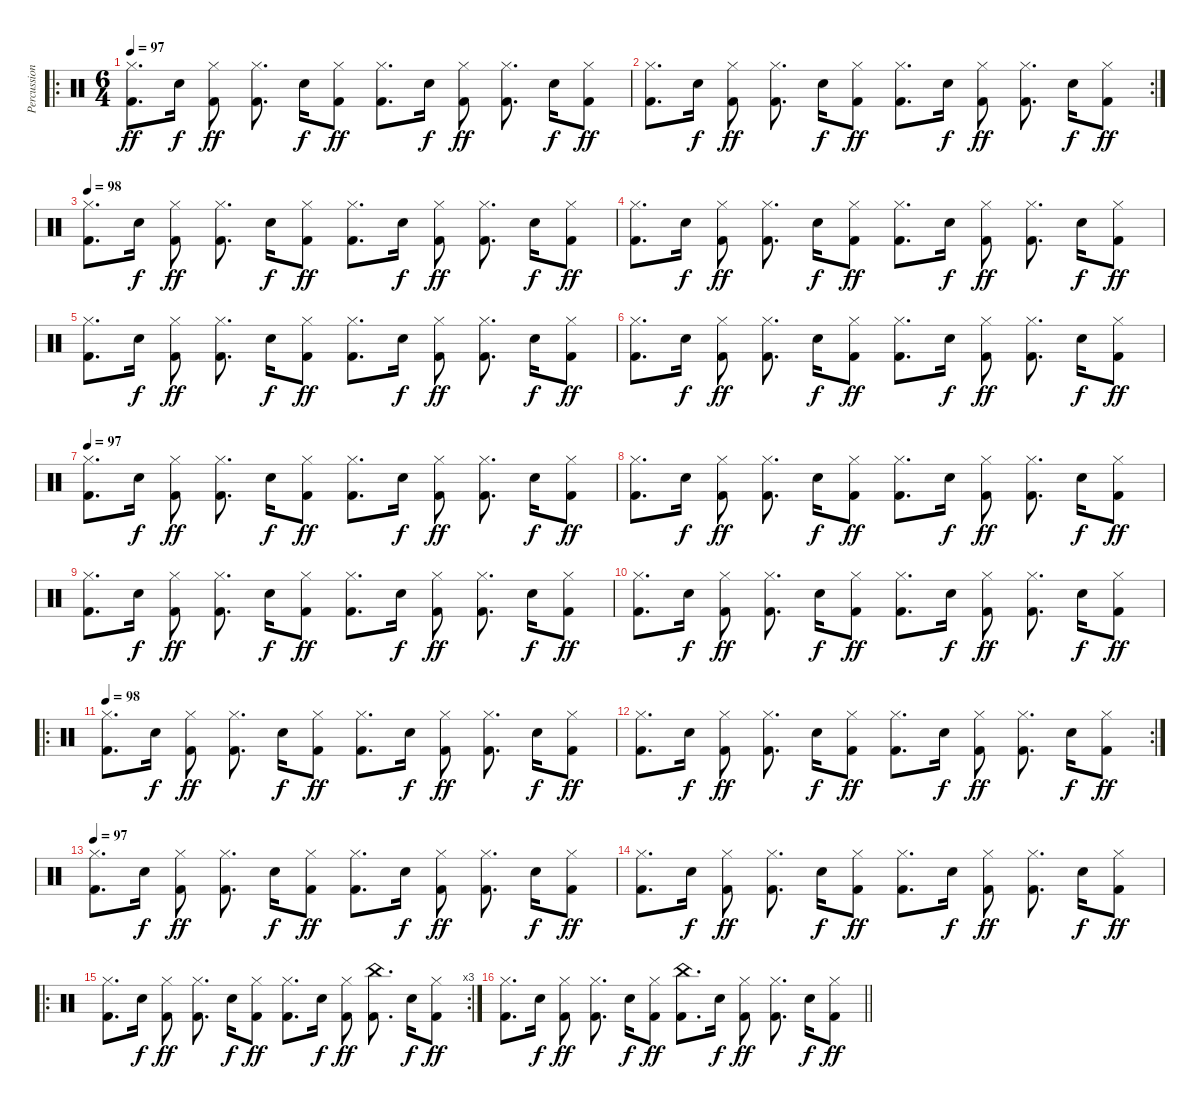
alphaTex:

\track ("Percussion" "Percussion") {instrument percussion}
\staff {score}
\articulation defaults
\ro
\ts (6 4)
\tempo 97
\clef neutral
\ks c
("Hi-Hat (closed)" "Kick (hit) 2").8{d dy ff} "Electric Snare (hit)".16{dy f} ("Hi-Hat (closed)" "Kick (hit) 2").8{dy ff beam split} ("Hi-Hat (closed)" "Kick (hit) 2").8{d} "Electric Snare (hit)".16{dy f} ("Hi-Hat (closed)" "Kick (hit) 2").8{dy ff} ("Hi-Hat (closed)" "Kick (hit) 2").8{d} "Electric Snare (hit)".16{dy f} ("Hi-Hat (closed)" "Kick (hit) 2").8{dy ff beam split} ("Hi-Hat (closed)" "Kick (hit) 2").8{d} "Electric Snare (hit)".16{dy f} ("Hi-Hat (closed)" "Kick (hit) 2").8{dy ff} |
\rc 2
("Hi-Hat (closed)" "Kick (hit) 2").8{d} "Electric Snare (hit)".16{dy f} ("Hi-Hat (closed)" "Kick (hit) 2").8{dy ff beam split} ("Hi-Hat (closed)" "Kick (hit) 2").8{d} "Electric Snare (hit)".16{dy f} ("Hi-Hat (closed)" "Kick (hit) 2").8{dy ff} ("Hi-Hat (closed)" "Kick (hit) 2").8{d} "Electric Snare (hit)".16{dy f} ("Hi-Hat (closed)" "Kick (hit) 2").8{dy ff beam split} ("Hi-Hat (closed)" "Kick (hit) 2").8{d} "Electric Snare (hit)".16{dy f} ("Hi-Hat (closed)" "Kick (hit) 2").8{dy ff} |
\tempo 98
("Hi-Hat (closed)" "Kick (hit) 2").8{d} "Electric Snare (hit)".16{dy f} ("Hi-Hat (closed)" "Kick (hit) 2").8{dy ff beam split} ("Hi-Hat (closed)" "Kick (hit) 2").8{d} "Electric Snare (hit)".16{dy f} ("Hi-Hat (closed)" "Kick (hit) 2").8{dy ff} ("Hi-Hat (closed)" "Kick (hit) 2").8{d} "Electric Snare (hit)".16{dy f} ("Hi-Hat (closed)" "Kick (hit) 2").8{dy ff beam split} ("Hi-Hat (closed)" "Kick (hit) 2").8{d} "Electric Snare (hit)".16{dy f} ("Hi-Hat (closed)" "Kick (hit) 2").8{dy ff} |
("Hi-Hat (closed)" "Kick (hit) 2").8{d} "Electric Snare (hit)".16{dy f} ("Hi-Hat (closed)" "Kick (hit) 2").8{dy ff beam split} ("Hi-Hat (closed)" "Kick (hit) 2").8{d} "Electric Snare (hit)".16{dy f} ("Hi-Hat (closed)" "Kick (hit) 2").8{dy ff} ("Hi-Hat (closed)" "Kick (hit) 2").8{d} "Electric Snare (hit)".16{dy f} ("Hi-Hat (closed)" "Kick (hit) 2").8{dy ff beam split} ("Hi-Hat (closed)" "Kick (hit) 2").8{d} "Electric Snare (hit)".16{dy f} ("Hi-Hat (closed)" "Kick (hit) 2").8{dy ff} |
("Hi-Hat (closed)" "Kick (hit) 2").8{d} "Electric Snare (hit)".16{dy f} ("Hi-Hat (closed)" "Kick (hit) 2").8{dy ff beam split} ("Hi-Hat (closed)" "Kick (hit) 2").8{d} "Electric Snare (hit)".16{dy f} ("Hi-Hat (closed)" "Kick (hit) 2").8{dy ff} ("Hi-Hat (closed)" "Kick (hit) 2").8{d} "Electric Snare (hit)".16{dy f} ("Hi-Hat (closed)" "Kick (hit) 2").8{dy ff beam split} ("Hi-Hat (closed)" "Kick (hit) 2").8{d} "Electric Snare (hit)".16{dy f} ("Hi-Hat (closed)" "Kick (hit) 2").8{dy ff} |
("Hi-Hat (closed)" "Kick (hit) 2").8{d} "Electric Snare (hit)".16{dy f} ("Hi-Hat (closed)" "Kick (hit) 2").8{dy ff beam split} ("Hi-Hat (closed)" "Kick (hit) 2").8{d} "Electric Snare (hit)".16{dy f} ("Hi-Hat (closed)" "Kick (hit) 2").8{dy ff} ("Hi-Hat (closed)" "Kick (hit) 2").8{d} "Electric Snare (hit)".16{dy f} ("Hi-Hat (closed)" "Kick (hit) 2").8{dy ff beam split} ("Hi-Hat (closed)" "Kick (hit) 2").8{d} "Electric Snare (hit)".16{dy f} ("Hi-Hat (closed)" "Kick (hit) 2").8{dy ff} |
\tempo 97
("Hi-Hat (closed)" "Kick (hit) 2").8{d} "Electric Snare (hit)".16{dy f} ("Hi-Hat (closed)" "Kick (hit) 2").8{dy ff beam split} ("Hi-Hat (closed)" "Kick (hit) 2").8{d} "Electric Snare (hit)".16{dy f} ("Hi-Hat (closed)" "Kick (hit) 2").8{dy ff} ("Hi-Hat (closed)" "Kick (hit) 2").8{d} "Electric Snare (hit)".16{dy f} ("Hi-Hat (closed)" "Kick (hit) 2").8{dy ff beam split} ("Hi-Hat (closed)" "Kick (hit) 2").8{d} "Electric Snare (hit)".16{dy f} ("Hi-Hat (closed)" "Kick (hit) 2").8{dy ff} |
("Hi-Hat (closed)" "Kick (hit) 2").8{d} "Electric Snare (hit)".16{dy f} ("Hi-Hat (closed)" "Kick (hit) 2").8{dy ff beam split} ("Hi-Hat (closed)" "Kick (hit) 2").8{d} "Electric Snare (hit)".16{dy f} ("Hi-Hat (closed)" "Kick (hit) 2").8{dy ff} ("Hi-Hat (closed)" "Kick (hit) 2").8{d} "Electric Snare (hit)".16{dy f} ("Hi-Hat (closed)" "Kick (hit) 2").8{dy ff beam split} ("Hi-Hat (closed)" "Kick (hit) 2").8{d} "Electric Snare (hit)".16{dy f} ("Hi-Hat (closed)" "Kick (hit) 2").8{dy ff} |
("Hi-Hat (closed)" "Kick (hit) 2").8{d} "Electric Snare (hit)".16{dy f} ("Hi-Hat (closed)" "Kick (hit) 2").8{dy ff beam split} ("Hi-Hat (closed)" "Kick (hit) 2").8{d} "Electric Snare (hit)".16{dy f} ("Hi-Hat (closed)" "Kick (hit) 2").8{dy ff} ("Hi-Hat (closed)" "Kick (hit) 2").8{d} "Electric Snare (hit)".16{dy f} ("Hi-Hat (closed)" "Kick (hit) 2").8{dy ff beam split} ("Hi-Hat (closed)" "Kick (hit) 2").8{d} "Electric Snare (hit)".16{dy f} ("Hi-Hat (closed)" "Kick (hit) 2").8{dy ff} |
("Hi-Hat (closed)" "Kick (hit) 2").8{d} "Electric Snare (hit)".16{dy f} ("Hi-Hat (closed)" "Kick (hit) 2").8{dy ff beam split} ("Hi-Hat (closed)" "Kick (hit) 2").8{d} "Electric Snare (hit)".16{dy f} ("Hi-Hat (closed)" "Kick (hit) 2").8{dy ff} ("Hi-Hat (closed)" "Kick (hit) 2").8{d} "Electric Snare (hit)".16{dy f} ("Hi-Hat (closed)" "Kick (hit) 2").8{dy ff beam split} ("Hi-Hat (closed)" "Kick (hit) 2").8{d} "Electric Snare (hit)".16{dy f} ("Hi-Hat (closed)" "Kick (hit) 2").8{dy ff} |
\ro
\tempo 98
("Hi-Hat (closed)" "Kick (hit) 2").8{d} "Electric Snare (hit)".16{dy f} ("Hi-Hat (closed)" "Kick (hit) 2").8{dy ff beam split} ("Hi-Hat (closed)" "Kick (hit) 2").8{d} "Electric Snare (hit)".16{dy f} ("Hi-Hat (closed)" "Kick (hit) 2").8{dy ff} ("Hi-Hat (closed)" "Kick (hit) 2").8{d} "Electric Snare (hit)".16{dy f} ("Hi-Hat (closed)" "Kick (hit) 2").8{dy ff beam split} ("Hi-Hat (closed)" "Kick (hit) 2").8{d} "Electric Snare (hit)".16{dy f} ("Hi-Hat (closed)" "Kick (hit) 2").8{dy ff} |
\rc 2
("Hi-Hat (closed)" "Kick (hit) 2").8{d} "Electric Snare (hit)".16{dy f} ("Hi-Hat (closed)" "Kick (hit) 2").8{dy ff beam split} ("Hi-Hat (closed)" "Kick (hit) 2").8{d} "Electric Snare (hit)".16{dy f} ("Hi-Hat (closed)" "Kick (hit) 2").8{dy ff} ("Hi-Hat (closed)" "Kick (hit) 2").8{d} "Electric Snare (hit)".16{dy f} ("Hi-Hat (closed)" "Kick (hit) 2").8{dy ff beam split} ("Hi-Hat (closed)" "Kick (hit) 2").8{d} "Electric Snare (hit)".16{dy f} ("Hi-Hat (closed)" "Kick (hit) 2").8{dy ff} |
\tempo 97
("Hi-Hat (closed)" "Kick (hit) 2").8{d} "Electric Snare (hit)".16{dy f} ("Hi-Hat (closed)" "Kick (hit) 2").8{dy ff beam split} ("Hi-Hat (closed)" "Kick (hit) 2").8{d} "Electric Snare (hit)".16{dy f} ("Hi-Hat (closed)" "Kick (hit) 2").8{dy ff} ("Hi-Hat (closed)" "Kick (hit) 2").8{d} "Electric Snare (hit)".16{dy f} ("Hi-Hat (closed)" "Kick (hit) 2").8{dy ff beam split} ("Hi-Hat (closed)" "Kick (hit) 2").8{d} "Electric Snare (hit)".16{dy f} ("Hi-Hat (closed)" "Kick (hit) 2").8{dy ff} |
("Hi-Hat (closed)" "Kick (hit) 2").8{d} "Electric Snare (hit)".16{dy f} ("Hi-Hat (closed)" "Kick (hit) 2").8{dy ff beam split} ("Hi-Hat (closed)" "Kick (hit) 2").8{d} "Electric Snare (hit)".16{dy f} ("Hi-Hat (closed)" "Kick (hit) 2").8{dy ff} ("Hi-Hat (closed)" "Kick (hit) 2").8{d} "Electric Snare (hit)".16{dy f} ("Hi-Hat (closed)" "Kick (hit) 2").8{dy ff beam split} ("Hi-Hat (closed)" "Kick (hit) 2").8{d} "Electric Snare (hit)".16{dy f} ("Hi-Hat (closed)" "Kick (hit) 2").8{dy ff} |
\ro
\rc 3
("Hi-Hat (closed)" "Kick (hit) 2").8{d} "Electric Snare (hit)".16{dy f} ("Hi-Hat (closed)" "Kick (hit) 2").8{dy ff beam split} ("Hi-Hat (closed)" "Kick (hit) 2").8{d} "Electric Snare (hit)".16{dy f} ("Hi-Hat (closed)" "Kick (hit) 2").8{dy ff} ("Hi-Hat (closed)" "Kick (hit) 2").8{d} "Electric Snare (hit)".16{dy f} ("Hi-Hat (closed)" "Kick (hit) 2").8{dy ff beam split} ("China (hit)" "Kick (hit) 2").8{d} "Electric Snare (hit)".16{dy f} ("Hi-Hat (closed)" "Kick (hit) 2").8{dy ff} |
\barLineRight lightlight
("Hi-Hat (closed)" "Kick (hit) 2").8{d} "Electric Snare (hit)".16{dy f} ("Hi-Hat (closed)" "Kick (hit) 2").8{dy ff beam split} ("Hi-Hat (closed)" "Kick (hit) 2").8{d} "Electric Snare (hit)".16{dy f} ("Hi-Hat (closed)" "Kick (hit) 2").8{dy ff} ("China (hit)" "Kick (hit) 2").8{d} "Electric Snare (hit)".16{dy f} ("Hi-Hat (closed)" "Kick (hit) 2").8{dy ff beam split} ("Hi-Hat (closed)" "Kick (hit) 2").8{d} "Electric Snare (hit)".16{dy f} ("Hi-Hat (closed)" "Kick (hit) 2").8{dy ff}
